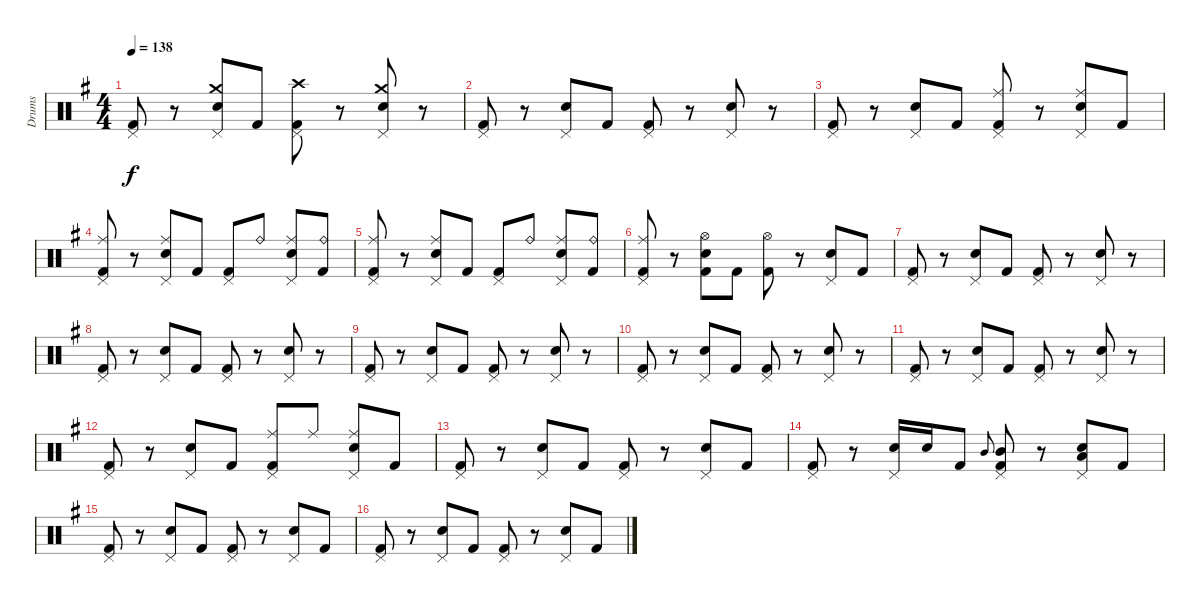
\track ("Drums" "Drums") {instrument percussion}
\staff {score}
\articulation defaults
\ts (4 4)
\tempo 138
\clef neutral
\ks g
("Pedal Hi-Hat (hit)" "Kick (hit) 2").8{dy f} r.8 ("Pedal Hi-Hat (hit)" "Crash medium (hit)" "Electric Snare (hit)").8 "Kick (hit) 2".8 ("Pedal Hi-Hat (hit)" "Crash high (hit)" "Kick (hit) 2").8 r.8 ("Pedal Hi-Hat (hit)" "Crash medium (hit)" "Electric Snare (hit)").8 r.8 |
("Pedal Hi-Hat (hit)" "Kick (hit) 2").8 r.8 ("Pedal Hi-Hat (hit)" "Electric Snare (hit)").8 "Kick (hit) 2".8 ("Pedal Hi-Hat (hit)" "Kick (hit) 2").8 r.8 ("Pedal Hi-Hat (hit)" "Electric Snare (hit)").8 r.8 |
("Pedal Hi-Hat (hit)" "Kick (hit) 2").8 r.8 ("Pedal Hi-Hat (hit)" "Electric Snare (hit)").8 "Kick (hit) 2".8 ("Pedal Hi-Hat (hit)" "Ride (middle)" "Kick (hit) 2").8 r.8 ("Pedal Hi-Hat (hit)" "Ride (middle)" "Electric Snare (hit)").8 "Kick (hit) 2".8 |
("Pedal Hi-Hat (hit)" "Ride (middle)" "Kick (hit) 2").8 r.8 ("Pedal Hi-Hat (hit)" "Ride (middle)" "Electric Snare (hit)").8 "Kick (hit) 2".8 ("Pedal Hi-Hat (hit)" "Kick (hit) 2").8 "Ride (bell)".8 ("Pedal Hi-Hat (hit)" "Ride (middle)" "Electric Snare (hit)").8 ("Ride (bell)" "Kick (hit) 2").8 |
("Pedal Hi-Hat (hit)" "Ride (middle)" "Kick (hit) 2").8 r.8 ("Pedal Hi-Hat (hit)" "Ride (middle)" "Electric Snare (hit)").8 "Kick (hit) 2".8 ("Pedal Hi-Hat (hit)" "Kick (hit) 2").8 "Ride (bell)".8 ("Pedal Hi-Hat (hit)" "Ride (middle)" "Electric Snare (hit)").8 ("Ride (bell)" "Kick (hit) 2").8 |
("Pedal Hi-Hat (hit)" "Ride (middle)" "Kick (hit) 2").8 r.8 ("Hi-Hat (open)" "Electric Snare (hit)" "Kick (hit) 2").8 "Kick (hit) 2".8 ("Hi-Hat (open)" "Kick (hit) 2").8 r.8 ("Pedal Hi-Hat (hit)" "Electric Snare (hit)").8 "Kick (hit) 2".8 |
("Pedal Hi-Hat (hit)" "Kick (hit) 2").8 r.8 ("Pedal Hi-Hat (hit)" "Electric Snare (hit)").8 "Kick (hit) 2".8 ("Pedal Hi-Hat (hit)" "Kick (hit) 2").8 r.8 ("Pedal Hi-Hat (hit)" "Electric Snare (hit)").8 r.8 |
("Pedal Hi-Hat (hit)" "Kick (hit) 2").8 r.8 ("Pedal Hi-Hat (hit)" "Electric Snare (hit)").8 "Kick (hit) 2".8 ("Pedal Hi-Hat (hit)" "Kick (hit) 2").8 r.8 ("Pedal Hi-Hat (hit)" "Electric Snare (hit)").8 r.8 |
("Pedal Hi-Hat (hit)" "Kick (hit) 2").8 r.8 ("Pedal Hi-Hat (hit)" "Electric Snare (hit)").8 "Kick (hit) 2".8 ("Pedal Hi-Hat (hit)" "Kick (hit) 2").8 r.8 ("Pedal Hi-Hat (hit)" "Electric Snare (hit)").8 r.8 |
("Pedal Hi-Hat (hit)" "Kick (hit) 2").8 r.8 ("Pedal Hi-Hat (hit)" "Electric Snare (hit)").8 "Kick (hit) 2".8 ("Pedal Hi-Hat (hit)" "Kick (hit) 2").8 r.8 ("Pedal Hi-Hat (hit)" "Electric Snare (hit)").8 r.8 |
("Pedal Hi-Hat (hit)" "Kick (hit) 2").8 r.8 ("Pedal Hi-Hat (hit)" "Electric Snare (hit)").8 "Kick (hit) 2".8 ("Pedal Hi-Hat (hit)" "Kick (hit) 2").8 r.8 ("Pedal Hi-Hat (hit)" "Electric Snare (hit)").8 r.8 |
("Pedal Hi-Hat (hit)" "Kick (hit) 2").8 r.8 ("Pedal Hi-Hat (hit)" "Electric Snare (hit)").8 "Kick (hit) 2".8 ("Pedal Hi-Hat (hit)" "Ride (middle)" "Kick (hit) 2").8 "Ride (middle)".8 ("Pedal Hi-Hat (hit)" "Ride (middle)" "Electric Snare (hit)").8 "Kick (hit) 2".8 |
("Pedal Hi-Hat (hit)" "Kick (hit) 2").8 r.8 ("Pedal Hi-Hat (hit)" "Electric Snare (hit)").8 "Kick (hit) 2".8 ("Pedal Hi-Hat (hit)" "Kick (hit) 2").8 r.8 ("Pedal Hi-Hat (hit)" "Electric Snare (hit)").8 "Kick (hit) 2".8 |
("Pedal Hi-Hat (hit)" "Kick (hit) 2").8 r.8 ("Pedal Hi-Hat (hit)" "Electric Snare (hit)").16 "Electric Snare (hit)".16 "Kick (hit) 2".8 "Mid Tom (hit)".8{gr onbeat} ("Pedal Hi-Hat (hit)" "Mid Tom (hit)" "Kick (hit) 2").8 r.8 ("Pedal Hi-Hat (hit)" "Low Tom (hit)" "Electric Snare (hit)").8 "Kick (hit) 2".8 |
("Pedal Hi-Hat (hit)" "Kick (hit) 2").8 r.8 ("Pedal Hi-Hat (hit)" "Electric Snare (hit)").8 "Kick (hit) 2".8 ("Pedal Hi-Hat (hit)" "Kick (hit) 2").8 r.8 ("Pedal Hi-Hat (hit)" "Electric Snare (hit)").8 "Kick (hit) 2".8 |
("Pedal Hi-Hat (hit)" "Kick (hit) 2").8 r.8 ("Pedal Hi-Hat (hit)" "Electric Snare (hit)").8 "Kick (hit) 2".8 ("Pedal Hi-Hat (hit)" "Kick (hit) 2").8 r.8 ("Pedal Hi-Hat (hit)" "Electric Snare (hit)").8 "Kick (hit) 2".8
